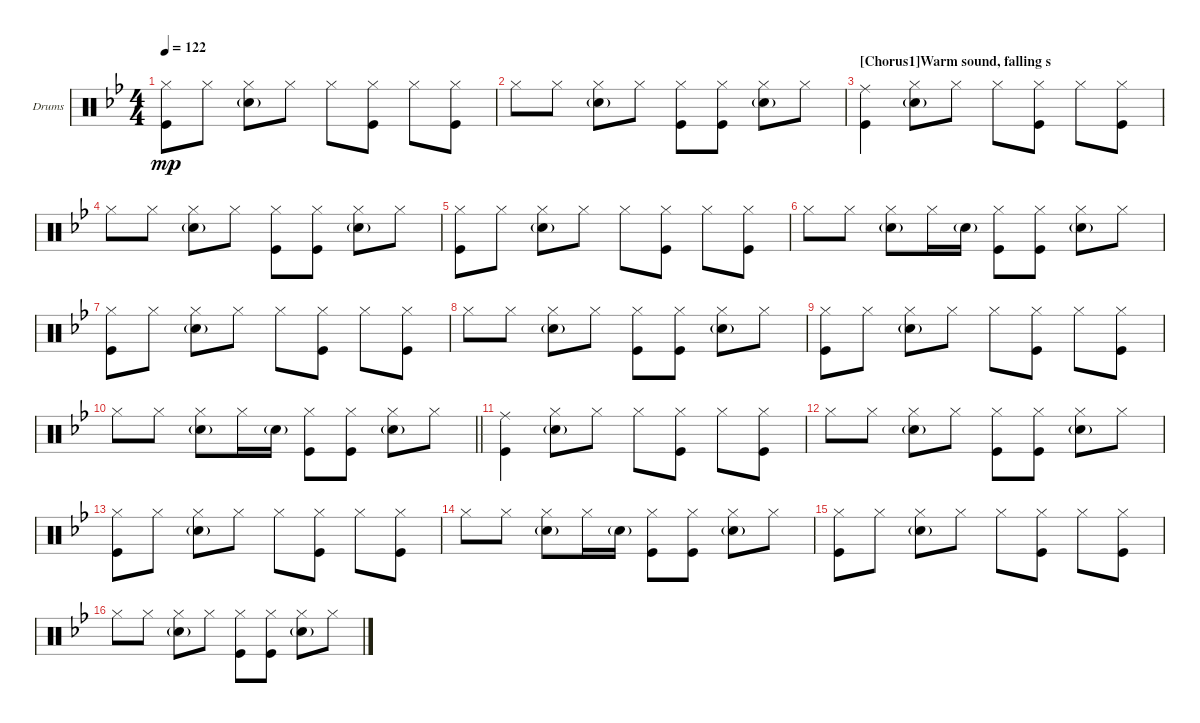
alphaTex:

\defaultSystemsLayout 4
\bracketExtendMode groupsimilarinstruments
\firstSystemTrackNameOrientation horizontal
\otherSystemsTrackNameOrientation horizontal
\track ("Drumkit" "Drums") {instrument percussion}
\staff {score}
\articulation defaults
\ts (4 4)
\tempo 122
\clef neutral
\ks bb
("Hi-Hat (closed)" "Kick (hit)").8{dy mp} "Hi-Hat (closed)".8 ("Hi-Hat (closed)" "Snare (hit) 2"{g}).8 "Hi-Hat (closed)".8 "Hi-Hat (closed)".8 ("Hi-Hat (closed)" "Kick (hit)").8 "Hi-Hat (closed)".8 ("Hi-Hat (closed)" "Kick (hit)").8 |
"Hi-Hat (closed)".8 "Hi-Hat (closed)".8 ("Hi-Hat (closed)" "Snare (hit) 2"{g}).8 "Hi-Hat (closed)".8 ("Hi-Hat (closed)" "Kick (hit)").8 ("Hi-Hat (closed)" "Kick (hit)").8 ("Hi-Hat (closed)" "Snare (hit) 2"{g}).8 "Hi-Hat (closed)".8 |
\section ("" "[Chorus1]Warm sound, falling s")
("Kick (hit)" "Ride (middle)").4 ("Hi-Hat (closed)" "Snare (hit) 2"{g}).8 "Hi-Hat (closed)".8 "Hi-Hat (closed)".8 ("Hi-Hat (closed)" "Kick (hit)").8 "Hi-Hat (closed)".8 ("Hi-Hat (closed)" "Kick (hit)").8 |
"Hi-Hat (closed)".8 "Hi-Hat (closed)".8 ("Hi-Hat (closed)" "Snare (hit) 2"{g}).8 "Hi-Hat (closed)".8 ("Hi-Hat (closed)" "Kick (hit)").8 ("Hi-Hat (closed)" "Kick (hit)").8 ("Hi-Hat (closed)" "Snare (hit) 2"{g}).8 "Hi-Hat (closed)".8 |
("Hi-Hat (closed)" "Kick (hit)").8 "Hi-Hat (closed)".8 ("Hi-Hat (closed)" "Snare (hit) 2"{g}).8 "Hi-Hat (closed)".8 "Hi-Hat (closed)".8 ("Hi-Hat (closed)" "Kick (hit)").8 "Hi-Hat (closed)".8 ("Hi-Hat (closed)" "Kick (hit)").8 |
"Hi-Hat (closed)".8 "Hi-Hat (closed)".8 ("Hi-Hat (closed)" "Snare (hit) 2"{g}).8 "Hi-Hat (closed)".16 "Snare (hit) 2"{g}.16 ("Hi-Hat (closed)" "Kick (hit)").8 ("Hi-Hat (closed)" "Kick (hit)").8 ("Hi-Hat (closed)" "Snare (hit) 2"{g}).8 "Hi-Hat (closed)".8 |
("Hi-Hat (closed)" "Kick (hit)").8 "Hi-Hat (closed)".8 ("Hi-Hat (closed)" "Snare (hit) 2"{g}).8 "Hi-Hat (closed)".8 "Hi-Hat (closed)".8 ("Hi-Hat (closed)" "Kick (hit)").8 "Hi-Hat (closed)".8 ("Hi-Hat (closed)" "Kick (hit)").8 |
"Hi-Hat (closed)".8 "Hi-Hat (closed)".8 ("Hi-Hat (closed)" "Snare (hit) 2"{g}).8 "Hi-Hat (closed)".8 ("Hi-Hat (closed)" "Kick (hit)").8 ("Hi-Hat (closed)" "Kick (hit)").8 ("Hi-Hat (closed)" "Snare (hit) 2"{g}).8 "Hi-Hat (closed)".8 |
("Hi-Hat (closed)" "Kick (hit)").8 "Hi-Hat (closed)".8 ("Hi-Hat (closed)" "Snare (hit) 2"{g}).8 "Hi-Hat (closed)".8 "Hi-Hat (closed)".8 ("Hi-Hat (closed)" "Kick (hit)").8 "Hi-Hat (closed)".8 ("Hi-Hat (closed)" "Kick (hit)").8 |
\barLineRight lightlight "Hi-Hat (closed)".8 "Hi-Hat (closed)".8
("Hi-Hat (closed)" "Snare (hit) 2"{g}).8 "Hi-Hat (closed)".16 "Snare (hit) 2"{g}.16 ("Hi-Hat (closed)" "Kick (hit)").8 ("Hi-Hat (closed)" "Kick (hit)").8 ("Hi-Hat (closed)" "Snare (hit) 2"{g}).8 "Hi-Hat (closed)".8 |
("Kick (hit)" "Ride (middle)").4 ("Hi-Hat (closed)" "Snare (hit) 2"{g}).8 "Hi-Hat (closed)".8 "Hi-Hat (closed)".8 ("Hi-Hat (closed)" "Kick (hit)").8 "Hi-Hat (closed)".8 ("Hi-Hat (closed)" "Kick (hit)").8 |
"Hi-Hat (closed)".8 "Hi-Hat (closed)".8 ("Hi-Hat (closed)" "Snare (hit) 2"{g}).8 "Hi-Hat (closed)".8 ("Hi-Hat (closed)" "Kick (hit)").8 ("Hi-Hat (closed)" "Kick (hit)").8 ("Hi-Hat (closed)" "Snare (hit) 2"{g}).8 "Hi-Hat (closed)".8 |
("Hi-Hat (closed)" "Kick (hit)").8 "Hi-Hat (closed)".8 ("Hi-Hat (closed)" "Snare (hit) 2"{g}).8 "Hi-Hat (closed)".8 "Hi-Hat (closed)".8 ("Hi-Hat (closed)" "Kick (hit)").8 "Hi-Hat (closed)".8 ("Hi-Hat (closed)" "Kick (hit)").8 |
"Hi-Hat (closed)".8 "Hi-Hat (closed)".8 ("Hi-Hat (closed)" "Snare (hit) 2"{g}).8 "Hi-Hat (closed)".16 "Snare (hit) 2"{g}.16 ("Hi-Hat (closed)" "Kick (hit)").8 ("Hi-Hat (closed)" "Kick (hit)").8 ("Hi-Hat (closed)" "Snare (hit) 2"{g}).8 "Hi-Hat (closed)".8 |
("Hi-Hat (closed)" "Kick (hit)").8 "Hi-Hat (closed)".8 ("Hi-Hat (closed)" "Snare (hit) 2"{g}).8 "Hi-Hat (closed)".8 "Hi-Hat (closed)".8 ("Hi-Hat (closed)" "Kick (hit)").8 "Hi-Hat (closed)".8 ("Hi-Hat (closed)" "Kick (hit)").8 |
"Hi-Hat (closed)".8 "Hi-Hat (closed)".8 ("Hi-Hat (closed)" "Snare (hit) 2"{g}).8 "Hi-Hat (closed)".8 ("Hi-Hat (closed)" "Kick (hit)").8 ("Hi-Hat (closed)" "Kick (hit)").8 ("Hi-Hat (closed)" "Snare (hit) 2"{g}).8 "Hi-Hat (closed)".8
